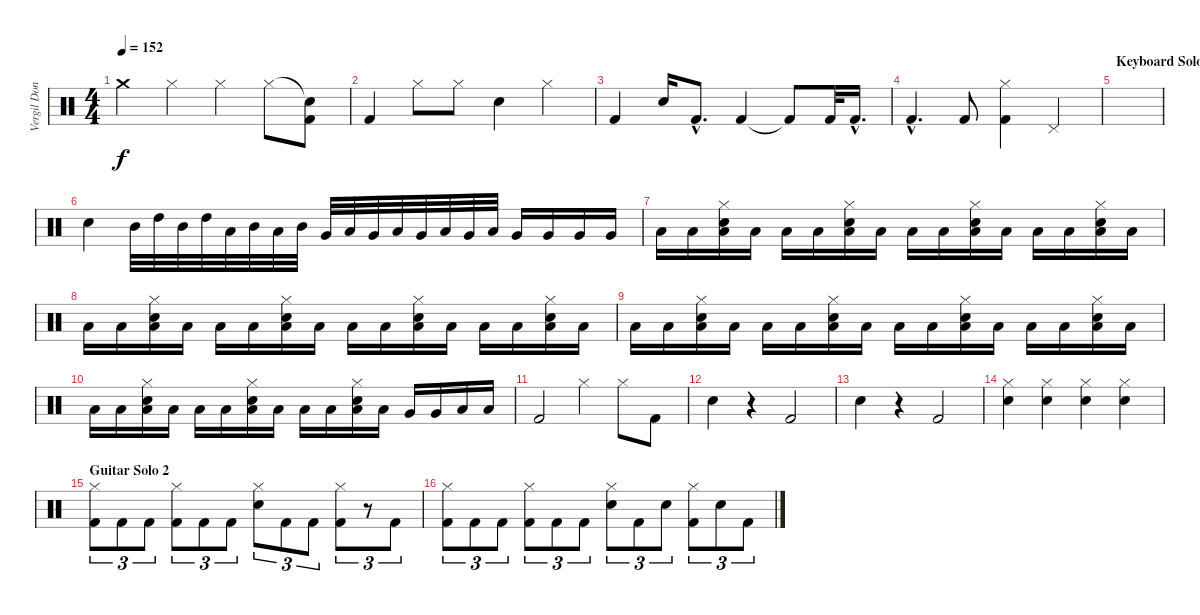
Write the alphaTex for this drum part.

\track ("Vergil Donati" "Vergil Don") {instrument percussion}
\staff {score}
\articulation defaults
\ts (4 4)
\tempo 152
\clef neutral
\ks c "Crash medium (hit)".4{dy f} "Hi-Hat (closed)".4 "Hi-Hat (closed)".4 "Hi-Hat (closed)".8
("Snare (hit)"{t} "Kick (hit) 2").8 |
"Kick (hit) 2".4 "Hi-Hat (closed)".8 "Hi-Hat (closed)".8 "Electric Snare (hit)".4 "Hi-Hat (closed)".4 |
"Kick (hit) 2".4 "Electric Snare (hit)".16 "Kick (hit) 2"{hac}.8{d} "Kick (hit) 2".4 "Kick (hit) 2"{t}.8 "Kick (hit) 2".32 "Kick (hit) 2"{hac}.16{d} |
"Kick (hit) 2"{hac}.4{d} "Kick (hit) 2".8 ("Hi-Hat (closed)" "Kick (hit) 2").4 "Pedal Hi-Hat (hit)".4 |
\section ("" "Keyboard Solo")
|
"Electric Snare (hit)".4 "Mid Tom (hit)".32 "High Tom (hit)".32 "Mid Tom (hit)".32 "High Tom (hit)".32 "Low Tom (hit)".32 "Mid Tom (hit)".32 "Low Tom (hit)".32 "Mid Tom (hit)".32 "Very Low Tom (hit)".32 "Low Tom (hit)".32 "Very Low Tom (hit)".32 "Low Tom (hit)".32 "Very Low Tom (hit)".32 "Low Tom (hit)".32 "Very Low Tom (hit)".32 "Low Tom (hit)".32 "Very Low Tom (hit)".16 "Very Low Tom (hit)".16 "Very Low Tom (hit)".16 "Very Low Tom (hit)".16 |
"Low Floor Tom (hit)".16 "Low Floor Tom (hit)".16 ("Electric Snare (hit)" "Hi-Hat (closed)" "Low Floor Tom (hit)").16 "Low Floor Tom (hit)".16 "Low Floor Tom (hit)".16 "Low Floor Tom (hit)".16 ("Electric Snare (hit)" "Hi-Hat (closed)" "Low Floor Tom (hit)").16 "Low Floor Tom (hit)".16 "Low Floor Tom (hit)".16 "Low Floor Tom (hit)".16 ("Electric Snare (hit)" "Hi-Hat (closed)" "Low Floor Tom (hit)").16 "Low Floor Tom (hit)".16 "Low Floor Tom (hit)".16 "Low Floor Tom (hit)".16 ("Electric Snare (hit)" "Hi-Hat (closed)" "Low Floor Tom (hit)").16 "Low Floor Tom (hit)".16 |
"Low Floor Tom (hit)".16 "Low Floor Tom (hit)".16 ("Electric Snare (hit)" "Hi-Hat (closed)" "Low Floor Tom (hit)").16 "Low Floor Tom (hit)".16 "Low Floor Tom (hit)".16 "Low Floor Tom (hit)".16 ("Electric Snare (hit)" "Hi-Hat (closed)" "Low Floor Tom (hit)").16 "Low Floor Tom (hit)".16 "Low Floor Tom (hit)".16 "Low Floor Tom (hit)".16 ("Electric Snare (hit)" "Hi-Hat (closed)" "Low Floor Tom (hit)").16 "Low Floor Tom (hit)".16 "Low Floor Tom (hit)".16 "Low Floor Tom (hit)".16 ("Electric Snare (hit)" "Hi-Hat (closed)" "Low Floor Tom (hit)").16 "Low Floor Tom (hit)".16 |
"Low Floor Tom (hit)".16 "Low Floor Tom (hit)".16 ("Electric Snare (hit)" "Hi-Hat (closed)" "Low Floor Tom (hit)").16 "Low Floor Tom (hit)".16 "Low Floor Tom (hit)".16 "Low Floor Tom (hit)".16 ("Electric Snare (hit)" "Hi-Hat (closed)" "Low Floor Tom (hit)").16 "Low Floor Tom (hit)".16 "Low Floor Tom (hit)".16 "Low Floor Tom (hit)".16 ("Electric Snare (hit)" "Hi-Hat (closed)" "Low Floor Tom (hit)").16 "Low Floor Tom (hit)".16 "Low Floor Tom (hit)".16 "Low Floor Tom (hit)".16 ("Electric Snare (hit)" "Hi-Hat (closed)" "Low Floor Tom (hit)").16 "Low Floor Tom (hit)".16 |
"Low Floor Tom (hit)".16 "Low Floor Tom (hit)".16 ("Electric Snare (hit)" "Hi-Hat (closed)" "Low Floor Tom (hit)").16 "Low Floor Tom (hit)".16 "Low Floor Tom (hit)".16 "Low Floor Tom (hit)".16 ("Electric Snare (hit)" "Hi-Hat (closed)" "Low Floor Tom (hit)").16 "Low Floor Tom (hit)".16 "Low Floor Tom (hit)".16 "Low Floor Tom (hit)".16 ("Electric Snare (hit)" "Hi-Hat (closed)" "Low Floor Tom (hit)").16 "Low Floor Tom (hit)".16 "Very Low Tom (hit)".16 "Very Low Tom (hit)".16 "Low Floor Tom (hit)".16 "Low Floor Tom (hit)".16 |
"Kick (hit) 2".2 "Hi-Hat (closed)".4 "Hi-Hat (closed)".8 "Kick (hit) 2".8 |
"Electric Snare (hit)".4 r.4 "Kick (hit) 2".2 |
"Electric Snare (hit)".4 r.4 "Kick (hit) 2".2 |
("Electric Snare (hit)" "Hi-Hat (closed)").4 ("Electric Snare (hit)" "Hi-Hat (closed)").4 ("Electric Snare (hit)" "Hi-Hat (closed)").4 ("Electric Snare (hit)" "Hi-Hat (closed)").4 |
\section ("" "Guitar Solo 2")
("Hi-Hat (closed)" "Kick (hit) 2").8{tu (3 2)} "Kick (hit) 2".8{tu (3 2)} "Kick (hit) 2".8{tu (3 2)} ("Hi-Hat (closed)" "Kick (hit) 2").8{tu (3 2)} "Kick (hit) 2".8{tu (3 2)} "Kick (hit) 2".8{tu (3 2)} ("Hi-Hat (closed)" "Electric Snare (hit)").8{tu (3 2)} "Kick (hit) 2".8{tu (3 2)} "Kick (hit) 2".8{tu (3 2)} ("Hi-Hat (closed)" "Kick (hit) 2").8{tu (3 2)} r.8{tu (3 2)} "Kick (hit) 2".8{tu (3 2)} |
("Hi-Hat (closed)" "Kick (hit) 2").8{tu (3 2)} "Kick (hit) 2".8{tu (3 2)} "Kick (hit) 2".8{tu (3 2)} ("Hi-Hat (closed)" "Kick (hit) 2").8{tu (3 2)} "Kick (hit) 2".8{tu (3 2)} "Kick (hit) 2".8{tu (3 2)} ("Hi-Hat (closed)" "Electric Snare (hit)").8{tu (3 2)} "Kick (hit) 2".8{tu (3 2)} "Electric Snare (hit)".8{tu (3 2)} ("Hi-Hat (closed)" "Kick (hit) 2").8{tu (3 2)} "Electric Snare (hit)".8{tu (3 2)} "Kick (hit) 2".8{tu (3 2)}
